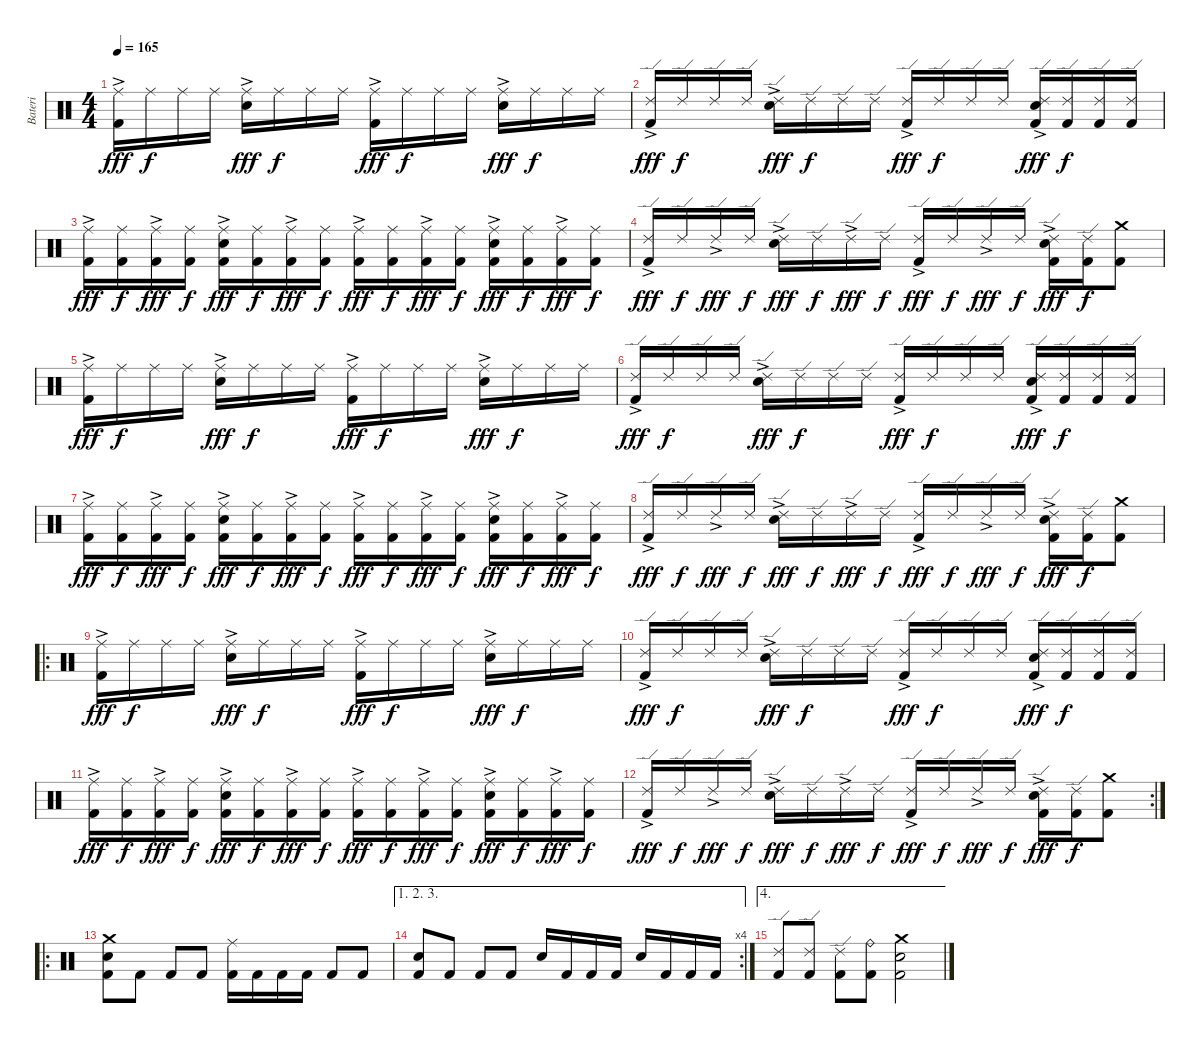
\track ("Bateri" "Bateri") {instrument percussion}
\staff {score}
\articulation defaults
\ts (4 4)
\tempo 165
\clef neutral
\ks c
("Ride (middle)"{ac} "Kick (hit) 2").16{dy fff} "Ride (middle)".16{dy f} "Ride (middle)".16 "Ride (middle)".16 ("Ride (middle)"{ac} "Snare (hit) 2").16{dy fff} "Ride (middle)".16{dy f} "Ride (middle)".16 "Ride (middle)".16 ("Ride (middle)"{ac} "Kick (hit) 2").16{dy fff} "Ride (middle)".16{dy f} "Ride (middle)".16 "Ride (middle)".16 ("Ride (middle)"{ac} "Snare (hit) 2").16{dy fff} "Ride (middle)".16{dy f} "Ride (middle)".16 "Ride (middle)".16 |
("Ride (edge) 2"{ac} "Kick (hit) 2").16{dy fff} "Ride (edge) 2".16{dy f} "Ride (edge) 2".16 "Ride (edge) 2".16 ("Ride (edge) 2"{ac} "Snare (hit) 2").16{dy fff} "Ride (edge) 2".16{dy f} "Ride (edge) 2".16 "Ride (edge) 2".16 ("Ride (edge) 2"{ac} "Kick (hit) 2").16{dy fff} "Ride (edge) 2".16{dy f} "Ride (edge) 2".16 "Ride (edge) 2".16 ("Ride (edge) 2"{ac} "Snare (hit) 2" "Kick (hit) 2").16{dy fff} ("Ride (edge) 2" "Kick (hit) 2").16{dy f} ("Ride (edge) 2" "Kick (hit) 2").16 ("Ride (edge) 2" "Kick (hit) 2").16 |
("Ride (middle)"{ac} "Kick (hit) 2").16{dy fff} ("Ride (middle)" "Kick (hit) 2").16{dy f} ("Ride (middle)"{ac} "Kick (hit) 2").16{dy fff} ("Ride (middle)" "Kick (hit) 2").16{dy f} ("Ride (middle)"{ac} "Snare (hit) 2" "Kick (hit) 2").16{dy fff} ("Ride (middle)" "Kick (hit) 2").16{dy f} ("Ride (middle)"{ac} "Kick (hit) 2").16{dy fff} ("Ride (middle)" "Kick (hit) 2").16{dy f} ("Ride (middle)"{ac} "Kick (hit) 2").16{dy fff} ("Ride (middle)" "Kick (hit) 2").16{dy f} ("Ride (middle)"{ac} "Kick (hit) 2").16{dy fff} ("Ride (middle)" "Kick (hit) 2").16{dy f} ("Ride (middle)"{ac} "Snare (hit) 2" "Kick (hit) 2").16{dy fff} ("Ride (middle)" "Kick (hit) 2").16{dy f} ("Ride (middle)"{ac} "Kick (hit) 2").16{dy fff} ("Ride (middle)" "Kick (hit) 2").16{dy f} |
("Ride (edge) 2"{ac} "Kick (hit) 2").16{dy fff} "Ride (edge) 2".16{dy f} "Ride (edge) 2"{ac}.16{dy fff} "Ride (edge) 2".16{dy f} ("Ride (edge) 2"{ac} "Snare (hit) 2").16{dy fff} "Ride (edge) 2".16{dy f} "Ride (edge) 2"{ac}.16{dy fff} "Ride (edge) 2".16{dy f} ("Ride (edge) 2"{ac} "Kick (hit) 2").16{dy fff} "Ride (edge) 2".16{dy f} "Ride (edge) 2"{ac}.16{dy fff} "Ride (edge) 2".16{dy f} ("Ride (edge) 2"{ac} "Snare (hit) 2" "Kick (hit) 2").16{dy fff} ("Ride (edge) 2" "Kick (hit) 2").16{dy f} ("Crash medium (hit)" "Kick (hit) 2").8 |
("Ride (middle)"{ac} "Kick (hit) 2").16{dy fff} "Ride (middle)".16{dy f} "Ride (middle)".16 "Ride (middle)".16 ("Ride (middle)"{ac} "Snare (hit) 2").16{dy fff} "Ride (middle)".16{dy f} "Ride (middle)".16 "Ride (middle)".16 ("Ride (middle)"{ac} "Kick (hit) 2").16{dy fff} "Ride (middle)".16{dy f} "Ride (middle)".16 "Ride (middle)".16 ("Ride (middle)"{ac} "Snare (hit) 2").16{dy fff} "Ride (middle)".16{dy f} "Ride (middle)".16 "Ride (middle)".16 |
("Ride (edge) 2"{ac} "Kick (hit) 2").16{dy fff} "Ride (edge) 2".16{dy f} "Ride (edge) 2".16 "Ride (edge) 2".16 ("Ride (edge) 2"{ac} "Snare (hit) 2").16{dy fff} "Ride (edge) 2".16{dy f} "Ride (edge) 2".16 "Ride (edge) 2".16 ("Ride (edge) 2"{ac} "Kick (hit) 2").16{dy fff} "Ride (edge) 2".16{dy f} "Ride (edge) 2".16 "Ride (edge) 2".16 ("Ride (edge) 2"{ac} "Snare (hit) 2" "Kick (hit) 2").16{dy fff} ("Ride (edge) 2" "Kick (hit) 2").16{dy f} ("Ride (edge) 2" "Kick (hit) 2").16 ("Ride (edge) 2" "Kick (hit) 2").16 |
("Ride (middle)"{ac} "Kick (hit) 2").16{dy fff} ("Ride (middle)" "Kick (hit) 2").16{dy f} ("Ride (middle)"{ac} "Kick (hit) 2").16{dy fff} ("Ride (middle)" "Kick (hit) 2").16{dy f} ("Ride (middle)"{ac} "Snare (hit) 2" "Kick (hit) 2").16{dy fff} ("Ride (middle)" "Kick (hit) 2").16{dy f} ("Ride (middle)"{ac} "Kick (hit) 2").16{dy fff} ("Ride (middle)" "Kick (hit) 2").16{dy f} ("Ride (middle)"{ac} "Kick (hit) 2").16{dy fff} ("Ride (middle)" "Kick (hit) 2").16{dy f} ("Ride (middle)"{ac} "Kick (hit) 2").16{dy fff} ("Ride (middle)" "Kick (hit) 2").16{dy f} ("Ride (middle)"{ac} "Snare (hit) 2" "Kick (hit) 2").16{dy fff} ("Ride (middle)" "Kick (hit) 2").16{dy f} ("Ride (middle)"{ac} "Kick (hit) 2").16{dy fff} ("Ride (middle)" "Kick (hit) 2").16{dy f} |
("Ride (edge) 2"{ac} "Kick (hit) 2").16{dy fff} "Ride (edge) 2".16{dy f} "Ride (edge) 2"{ac}.16{dy fff} "Ride (edge) 2".16{dy f} ("Ride (edge) 2"{ac} "Snare (hit) 2").16{dy fff} "Ride (edge) 2".16{dy f} "Ride (edge) 2"{ac}.16{dy fff} "Ride (edge) 2".16{dy f} ("Ride (edge) 2"{ac} "Kick (hit) 2").16{dy fff} "Ride (edge) 2".16{dy f} "Ride (edge) 2"{ac}.16{dy fff} "Ride (edge) 2".16{dy f} ("Ride (edge) 2"{ac} "Snare (hit) 2" "Kick (hit) 2").16{dy fff} ("Ride (edge) 2" "Kick (hit) 2").16{dy f} ("Crash medium (hit)" "Kick (hit) 2").8 |
\ro
("Ride (middle)"{ac} "Kick (hit) 2").16{dy fff} "Ride (middle)".16{dy f} "Ride (middle)".16 "Ride (middle)".16 ("Ride (middle)"{ac} "Snare (hit) 2").16{dy fff} "Ride (middle)".16{dy f} "Ride (middle)".16 "Ride (middle)".16 ("Ride (middle)"{ac} "Kick (hit) 2").16{dy fff} "Ride (middle)".16{dy f} "Ride (middle)".16 "Ride (middle)".16 ("Ride (middle)"{ac} "Snare (hit) 2").16{dy fff} "Ride (middle)".16{dy f} "Ride (middle)".16 "Ride (middle)".16 |
("Ride (edge) 2"{ac} "Kick (hit) 2").16{dy fff} "Ride (edge) 2".16{dy f} "Ride (edge) 2".16 "Ride (edge) 2".16 ("Ride (edge) 2"{ac} "Snare (hit) 2").16{dy fff} "Ride (edge) 2".16{dy f} "Ride (edge) 2".16 "Ride (edge) 2".16 ("Ride (edge) 2"{ac} "Kick (hit) 2").16{dy fff} "Ride (edge) 2".16{dy f} "Ride (edge) 2".16 "Ride (edge) 2".16 ("Ride (edge) 2"{ac} "Snare (hit) 2" "Kick (hit) 2").16{dy fff} ("Ride (edge) 2" "Kick (hit) 2").16{dy f} ("Ride (edge) 2" "Kick (hit) 2").16 ("Ride (edge) 2" "Kick (hit) 2").16 |
("Ride (middle)"{ac} "Kick (hit) 2").16{dy fff} ("Ride (middle)" "Kick (hit) 2").16{dy f} ("Ride (middle)"{ac} "Kick (hit) 2").16{dy fff} ("Ride (middle)" "Kick (hit) 2").16{dy f} ("Ride (middle)"{ac} "Snare (hit) 2" "Kick (hit) 2").16{dy fff} ("Ride (middle)" "Kick (hit) 2").16{dy f} ("Ride (middle)"{ac} "Kick (hit) 2").16{dy fff} ("Ride (middle)" "Kick (hit) 2").16{dy f} ("Ride (middle)"{ac} "Kick (hit) 2").16{dy fff} ("Ride (middle)" "Kick (hit) 2").16{dy f} ("Ride (middle)"{ac} "Kick (hit) 2").16{dy fff} ("Ride (middle)" "Kick (hit) 2").16{dy f} ("Ride (middle)"{ac} "Snare (hit) 2" "Kick (hit) 2").16{dy fff} ("Ride (middle)" "Kick (hit) 2").16{dy f} ("Ride (middle)"{ac} "Kick (hit) 2").16{dy fff} ("Ride (middle)" "Kick (hit) 2").16{dy f} |
\rc 2
("Ride (edge) 2"{ac} "Kick (hit) 2").16{dy fff} "Ride (edge) 2".16{dy f} "Ride (edge) 2"{ac}.16{dy fff} "Ride (edge) 2".16{dy f} ("Ride (edge) 2"{ac} "Snare (hit) 2").16{dy fff} "Ride (edge) 2".16{dy f} "Ride (edge) 2"{ac}.16{dy fff} "Ride (edge) 2".16{dy f} ("Ride (edge) 2"{ac} "Kick (hit) 2").16{dy fff} "Ride (edge) 2".16{dy f} "Ride (edge) 2"{ac}.16{dy fff} "Ride (edge) 2".16{dy f} ("Ride (edge) 2"{ac} "Snare (hit) 2" "Kick (hit) 2").16{dy fff} ("Ride (edge) 2" "Kick (hit) 2").16{dy f} ("Crash medium (hit)" "Kick (hit) 2").8 |
\ro
("Crash medium (hit)" "Snare (hit) 2" "Kick (hit) 2").8 "Kick (hit) 2".8 "Kick (hit) 2".8 "Kick (hit) 2".8 ("Ride (middle)" "Kick (hit) 2").16 "Kick (hit) 2".16 "Kick (hit) 2".16 "Kick (hit) 2".16 "Kick (hit) 2".8 "Kick (hit) 2".8 |
\ae (1 2 3)
\rc 4
("Snare (hit) 2" "Kick (hit) 2").8 "Kick (hit) 2".8 "Kick (hit) 2".8 "Kick (hit) 2".8 "Snare (hit) 2".16 "Kick (hit) 2".16 "Kick (hit) 2".16 "Kick (hit) 2".16 "Snare (hit) 2".16 "Kick (hit) 2".16 "Kick (hit) 2".16 "Kick (hit) 2".16 |
\ae 4
("Ride (edge) 2" "Kick (hit) 2").8 ("Ride (edge) 2" "Kick (hit) 2").8 ("Ride (edge) 2" "Kick (hit) 2").8 ("Ride (bell)" "Kick (hit) 2").8 ("Crash medium (hit)" "Snare (hit) 2" "Kick (hit) 2").2
